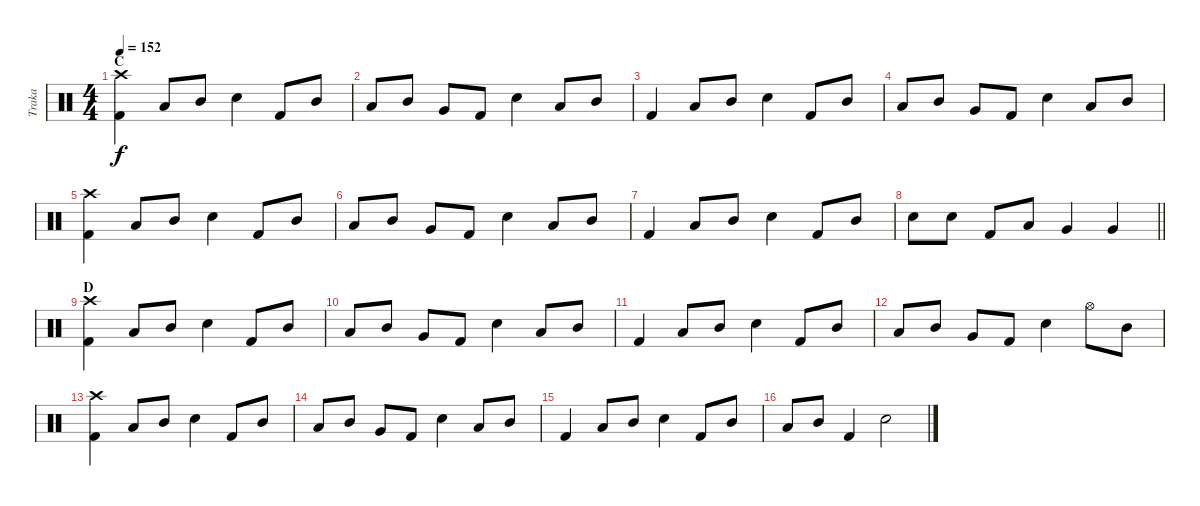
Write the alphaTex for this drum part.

\track ("Traka" "Traka") {instrument percussion}
\staff {score}
\articulation defaults
\ts (4 4)
\section ("" "C")
\tempo 152
\clef neutral
\ks c
("Crash high (hit)" "Kick (hit) 2").4{dy f} "Low Tom (hit)".8 "Mid Tom (hit)".8 "Electric Snare (hit)".4 "Kick (hit) 2".8 "Mid Tom (hit)".8 |
"Low Tom (hit)".8 "Mid Tom (hit)".8 "Very Low Tom (hit)".8 "Kick (hit) 2".8 "Electric Snare (hit)".4 "Low Tom (hit)".8 "Mid Tom (hit)".8 |
"Kick (hit) 2".4 "Low Tom (hit)".8 "Mid Tom (hit)".8 "Electric Snare (hit)".4 "Kick (hit) 2".8 "Mid Tom (hit)".8 |
"Low Tom (hit)".8 "Mid Tom (hit)".8 "Very Low Tom (hit)".8 "Kick (hit) 2".8 "Electric Snare (hit)".4 "Low Tom (hit)".8 "Mid Tom (hit)".8 |
("Crash high (hit)" "Kick (hit) 2").4 "Low Tom (hit)".8 "Mid Tom (hit)".8 "Electric Snare (hit)".4 "Kick (hit) 2".8 "Mid Tom (hit)".8 |
"Low Tom (hit)".8 "Mid Tom (hit)".8 "Very Low Tom (hit)".8 "Kick (hit) 2".8 "Electric Snare (hit)".4 "Low Tom (hit)".8 "Mid Tom (hit)".8 |
"Kick (hit) 2".4 "Low Tom (hit)".8 "Mid Tom (hit)".8 "Electric Snare (hit)".4 "Kick (hit) 2".8 "Mid Tom (hit)".8 |
\barLineRight lightlight "Electric Snare (hit)".8 "Electric Snare (hit)".8 "Kick (hit) 2".8 "Low Floor Tom (hit)".8 "Very Low Tom (hit)".4 "Very Low Tom (hit)".4
|
\section ("" "D")
("Crash high (hit)" "Kick (hit) 2").4 "Low Tom (hit)".8 "Mid Tom (hit)".8 "Electric Snare (hit)".4 "Kick (hit) 2".8 "Mid Tom (hit)".8 |
"Low Tom (hit)".8 "Mid Tom (hit)".8 "Very Low Tom (hit)".8 "Kick (hit) 2".8 "Electric Snare (hit)".4 "Low Tom (hit)".8 "Mid Tom (hit)".8 |
"Kick (hit) 2".4 "Low Tom (hit)".8 "Mid Tom (hit)".8 "Electric Snare (hit)".4 "Kick (hit) 2".8 "Mid Tom (hit)".8 |
"Low Tom (hit)".8 "Mid Tom (hit)".8 "Very Low Tom (hit)".8 "Kick (hit) 2".8 "Electric Snare (hit)".4 "Hi-Hat (open)".8 "Mid Tom (hit)".8 |
("Crash high (hit)" "Kick (hit) 2").4 "Low Tom (hit)".8 "Mid Tom (hit)".8 "Electric Snare (hit)".4 "Kick (hit) 2".8 "Mid Tom (hit)".8 |
"Low Tom (hit)".8 "Mid Tom (hit)".8 "Very Low Tom (hit)".8 "Kick (hit) 2".8 "Electric Snare (hit)".4 "Low Tom (hit)".8 "Mid Tom (hit)".8 |
"Kick (hit) 2".4 "Low Tom (hit)".8 "Mid Tom (hit)".8 "Electric Snare (hit)".4 "Kick (hit) 2".8 "Mid Tom (hit)".8 |
"Low Tom (hit)".8 "Mid Tom (hit)".8 "Kick (hit) 2".4 "Electric Snare (hit)".2
